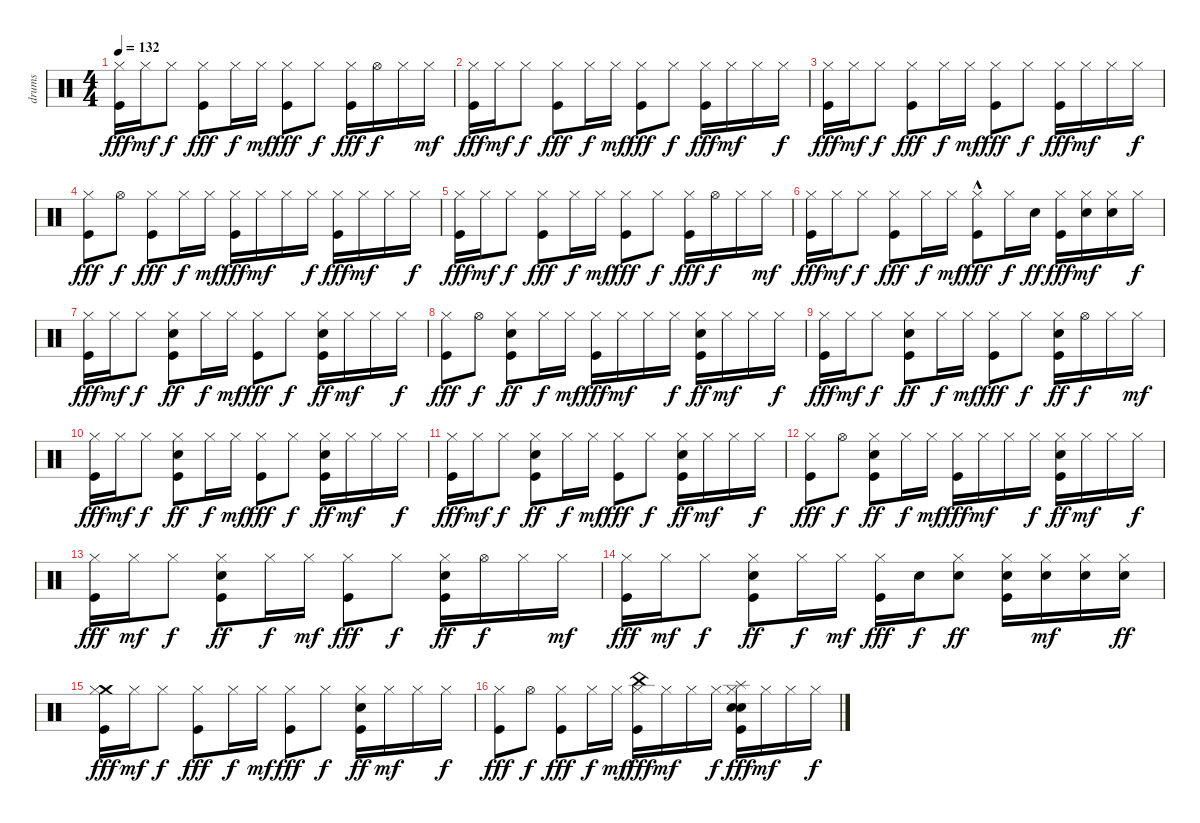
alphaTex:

\track ("drums" "drums") {instrument percussion}
\staff {score}
\articulation defaults
\ts (4 4)
\tempo 132
\clef neutral
\ks c
("Kick (hit)" "Hi-Hat (closed)").16{dy fff} "Hi-Hat (closed)".16{dy mf} "Hi-Hat (closed)".8{dy f} ("Kick (hit)" "Hi-Hat (closed)").8{dy fff} "Hi-Hat (closed)".16{dy f} "Hi-Hat (closed)".16{dy mf} ("Kick (hit)" "Hi-Hat (closed)").8{dy fff} "Hi-Hat (closed)".8{dy f} ("Kick (hit)" "Hi-Hat (closed)").16{dy fff} "Hi-Hat (open)".16{dy f} "Hi-Hat (closed)".16 "Hi-Hat (closed)".16{dy mf} |
("Kick (hit)" "Hi-Hat (closed)").16{dy fff} "Hi-Hat (closed)".16{dy mf} "Hi-Hat (closed)".8{dy f} ("Kick (hit)" "Hi-Hat (closed)").8{dy fff} "Hi-Hat (closed)".16{dy f} "Hi-Hat (closed)".16{dy mf} ("Kick (hit)" "Hi-Hat (closed)").8{dy fff} "Hi-Hat (closed)".8{dy f} ("Kick (hit)" "Hi-Hat (closed)").16{dy fff} "Hi-Hat (closed)".16{dy mf} "Hi-Hat (closed)".16 "Hi-Hat (closed)".16{dy f} |
("Kick (hit)" "Hi-Hat (closed)").16{dy fff} "Hi-Hat (closed)".16{dy mf} "Hi-Hat (closed)".8{dy f} ("Kick (hit)" "Hi-Hat (closed)").8{dy fff} "Hi-Hat (closed)".16{dy f} "Hi-Hat (closed)".16{dy mf} ("Kick (hit)" "Hi-Hat (closed)").8{dy fff} "Hi-Hat (closed)".8{dy f} ("Kick (hit)" "Hi-Hat (closed)").16{dy fff} "Hi-Hat (closed)".16{dy mf} "Hi-Hat (closed)".16 "Hi-Hat (closed)".16{dy f} |
("Kick (hit)" "Hi-Hat (closed)").8{dy fff} "Hi-Hat (open)".8{dy f} ("Kick (hit)" "Hi-Hat (closed)").8{dy fff} "Hi-Hat (closed)".16{dy f} "Hi-Hat (closed)".16{dy mf} ("Kick (hit)" "Hi-Hat (closed)").16{dy fff} "Hi-Hat (closed)".16{dy mf} "Hi-Hat (closed)".16 "Hi-Hat (closed)".16{dy f} ("Kick (hit)" "Hi-Hat (closed)").16{dy fff} "Hi-Hat (closed)".16{dy mf} "Hi-Hat (closed)".16 "Hi-Hat (closed)".16{dy f} |
("Kick (hit)" "Hi-Hat (closed)").16{dy fff} "Hi-Hat (closed)".16{dy mf} "Hi-Hat (closed)".8{dy f} ("Kick (hit)" "Hi-Hat (closed)").8{dy fff} "Hi-Hat (closed)".16{dy f} "Hi-Hat (closed)".16{dy mf} ("Kick (hit)" "Hi-Hat (closed)").8{dy fff} "Hi-Hat (closed)".8{dy f} ("Kick (hit)" "Hi-Hat (closed)").16{dy fff} "Hi-Hat (open)".16{dy f} "Hi-Hat (closed)".16 "Hi-Hat (closed)".16{dy mf} |
("Kick (hit)" "Hi-Hat (closed)").16{dy fff} "Hi-Hat (closed)".16{dy mf} "Hi-Hat (closed)".8{dy f} ("Kick (hit)" "Hi-Hat (closed)").8{dy fff} "Hi-Hat (closed)".16{dy f} "Hi-Hat (closed)".16{dy mf} ("Kick (hit)"{hac} "Hi-Hat (closed)").8{dy fff} "Hi-Hat (closed)".16{dy f} "Electric Snare (hit)".16{dy ff} ("Kick (hit)" "Hi-Hat (closed)").16{dy fff} ("Electric Snare (hit)" "Hi-Hat (closed)").16{dy mf} ("Electric Snare (hit)" "Hi-Hat (closed)").16 "Hi-Hat (closed)".16{dy f} |
("Kick (hit)" "Hi-Hat (closed)").16{dy fff} "Hi-Hat (closed)".16{dy mf} "Hi-Hat (closed)".8{dy f} ("Kick (hit)" "Electric Snare (hit)" "Hi-Hat (closed)").8{dy ff} "Hi-Hat (closed)".16{dy f} "Hi-Hat (closed)".16{dy mf} ("Kick (hit)" "Hi-Hat (closed)").8{dy fff} "Hi-Hat (closed)".8{dy f} ("Kick (hit)" "Electric Snare (hit)" "Hi-Hat (closed)").16{dy ff} "Hi-Hat (closed)".16{dy mf} "Hi-Hat (closed)".16 "Hi-Hat (closed)".16{dy f} |
("Kick (hit)" "Hi-Hat (closed)").8{dy fff} "Hi-Hat (open)".8{dy f} ("Kick (hit)" "Electric Snare (hit)" "Hi-Hat (closed)").8{dy ff} "Hi-Hat (closed)".16{dy f} "Hi-Hat (closed)".16{dy mf} ("Kick (hit)" "Hi-Hat (closed)").16{dy fff} "Hi-Hat (closed)".16{dy mf} "Hi-Hat (closed)".16 "Hi-Hat (closed)".16{dy f} ("Kick (hit)" "Electric Snare (hit)" "Hi-Hat (closed)").16{dy ff} "Hi-Hat (closed)".16{dy mf} "Hi-Hat (closed)".16 "Hi-Hat (closed)".16{dy f} |
("Kick (hit)" "Hi-Hat (closed)").16{dy fff} "Hi-Hat (closed)".16{dy mf} "Hi-Hat (closed)".8{dy f} ("Kick (hit)" "Electric Snare (hit)" "Hi-Hat (closed)").8{dy ff} "Hi-Hat (closed)".16{dy f} "Hi-Hat (closed)".16{dy mf} ("Kick (hit)" "Hi-Hat (closed)").8{dy fff} "Hi-Hat (closed)".8{dy f} ("Kick (hit)" "Electric Snare (hit)" "Hi-Hat (closed)").16{dy ff} "Hi-Hat (open)".16{dy f} "Hi-Hat (closed)".16 "Hi-Hat (closed)".16{dy mf} |
("Kick (hit)" "Hi-Hat (closed)").16{dy fff} "Hi-Hat (closed)".16{dy mf} "Hi-Hat (closed)".8{dy f} ("Kick (hit)" "Electric Snare (hit)" "Hi-Hat (closed)").8{dy ff} "Hi-Hat (closed)".16{dy f} "Hi-Hat (closed)".16{dy mf} ("Kick (hit)" "Hi-Hat (closed)").8{dy fff} "Hi-Hat (closed)".8{dy f} ("Kick (hit)" "Electric Snare (hit)" "Hi-Hat (closed)").16{dy ff} "Hi-Hat (closed)".16{dy mf} "Hi-Hat (closed)".16 "Hi-Hat (closed)".16{dy f} |
("Kick (hit)" "Hi-Hat (closed)").16{dy fff} "Hi-Hat (closed)".16{dy mf} "Hi-Hat (closed)".8{dy f} ("Kick (hit)" "Electric Snare (hit)" "Hi-Hat (closed)").8{dy ff} "Hi-Hat (closed)".16{dy f} "Hi-Hat (closed)".16{dy mf} ("Kick (hit)" "Hi-Hat (closed)").8{dy fff} "Hi-Hat (closed)".8{dy f} ("Kick (hit)" "Electric Snare (hit)" "Hi-Hat (closed)").16{dy ff} "Hi-Hat (closed)".16{dy mf} "Hi-Hat (closed)".16 "Hi-Hat (closed)".16{dy f} |
("Kick (hit)" "Hi-Hat (closed)").8{dy fff} "Hi-Hat (open)".8{dy f} ("Kick (hit)" "Electric Snare (hit)" "Hi-Hat (closed)").8{dy ff} "Hi-Hat (closed)".16{dy f} "Hi-Hat (closed)".16{dy mf} ("Kick (hit)" "Hi-Hat (closed)").16{dy fff} "Hi-Hat (closed)".16{dy mf} "Hi-Hat (closed)".16 "Hi-Hat (closed)".16{dy f} ("Kick (hit)" "Electric Snare (hit)" "Hi-Hat (closed)").16{dy ff} "Hi-Hat (closed)".16{dy mf} "Hi-Hat (closed)".16 "Hi-Hat (closed)".16{dy f} |
("Kick (hit)" "Hi-Hat (closed)").16{dy fff} "Hi-Hat (closed)".16{dy mf} "Hi-Hat (closed)".8{dy f} ("Kick (hit)" "Electric Snare (hit)" "Hi-Hat (closed)").8{dy ff} "Hi-Hat (closed)".16{dy f} "Hi-Hat (closed)".16{dy mf} ("Kick (hit)" "Hi-Hat (closed)").8{dy fff} "Hi-Hat (closed)".8{dy f} ("Kick (hit)" "Electric Snare (hit)" "Hi-Hat (closed)").16{dy ff} "Hi-Hat (open)".16{dy f} "Hi-Hat (closed)".16 "Hi-Hat (closed)".16{dy mf} |
("Kick (hit)" "Hi-Hat (closed)").16{dy fff} "Hi-Hat (closed)".16{dy mf} "Hi-Hat (closed)".8{dy f} ("Kick (hit)" "Electric Snare (hit)" "Hi-Hat (closed)").8{dy ff} "Hi-Hat (closed)".16{dy f} "Hi-Hat (closed)".16{dy mf} ("Kick (hit)" "Hi-Hat (closed)").16{dy fff} "Electric Snare (hit)".16{dy f} ("Electric Snare (hit)" "Hi-Hat (closed)").8{dy ff} ("Kick (hit)" "Electric Snare (hit)" "Hi-Hat (closed)").16 ("Electric Snare (hit)" "Hi-Hat (closed)").16{dy mf} ("Electric Snare (hit)" "Hi-Hat (closed)").16 ("Electric Snare (hit)" "Hi-Hat (closed)").16{dy ff} |
("Kick (hit)" "Crash medium (hit)" "Hi-Hat (closed)").16{dy fff} "Hi-Hat (closed)".16{dy mf} "Hi-Hat (closed)".8{dy f} ("Kick (hit)" "Hi-Hat (closed)").8{dy fff} "Hi-Hat (closed)".16{dy f} "Hi-Hat (closed)".16{dy mf} ("Kick (hit)" "Hi-Hat (closed)").8{dy fff} "Hi-Hat (closed)".8{dy f} ("Kick (hit)" "Electric Snare (hit)" "Hi-Hat (closed)").16{dy ff} "Hi-Hat (closed)".16{dy mf} "Hi-Hat (closed)".16 "Hi-Hat (closed)".16{dy f} |
("Kick (hit)" "Hi-Hat (closed)").8{dy fff} "Hi-Hat (open)".8{dy f} ("Kick (hit)" "Hi-Hat (closed)").8{dy fff} "Hi-Hat (closed)".16{dy f} "Hi-Hat (closed)".16{dy mf} ("Kick (hit)" "Hi-Hat (closed)" "China (hit)").16{dy fff} "Hi-Hat (closed)".16{dy mf} "Hi-Hat (closed)".16 "Hi-Hat (closed)".16{dy f} ("Kick (hit)" "Electric Snare (hit)" "Hi-Hat (closed)" "Splash (hit)" "Hand Clap (hit)").16{dy fff} "Hi-Hat (closed)".16{dy mf} "Hi-Hat (closed)".16 "Hi-Hat (closed)".16{dy f}
